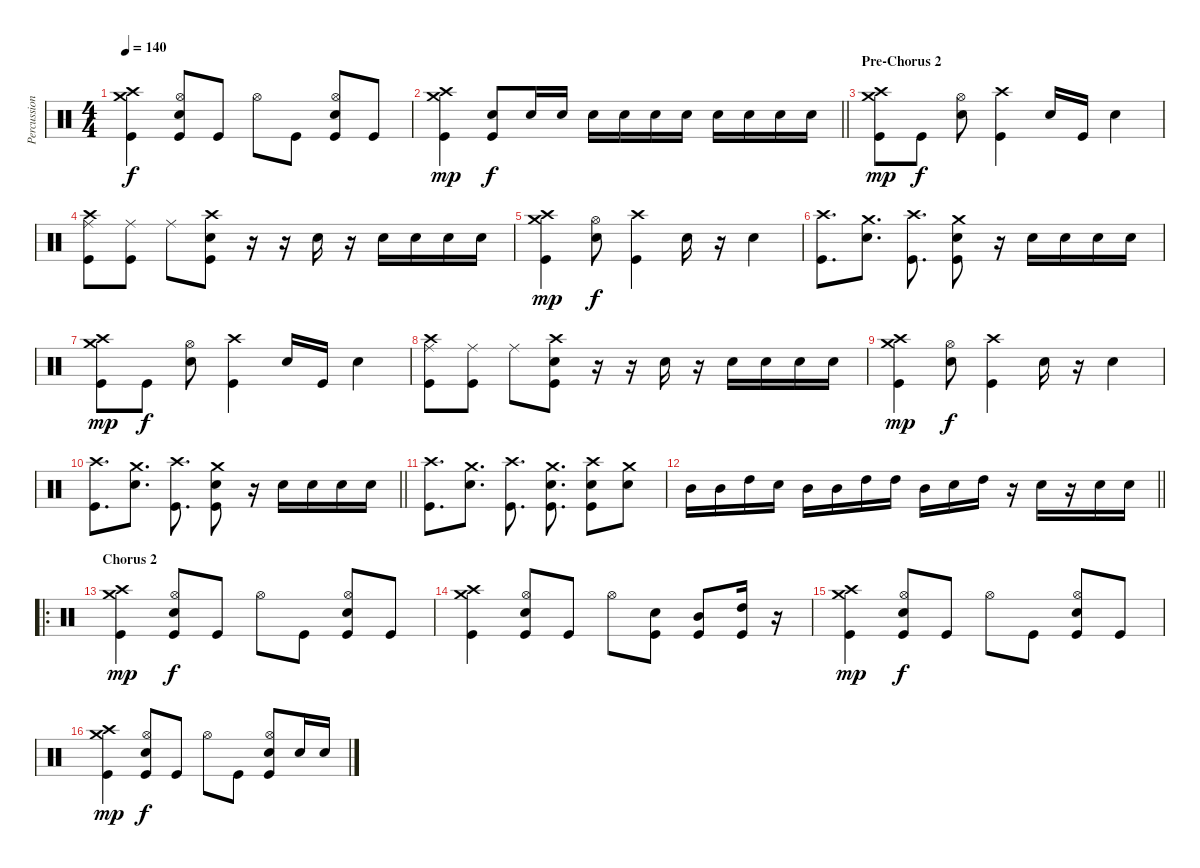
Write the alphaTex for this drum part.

\track ("Percussion" "Percussion") {instrument percussion}
\staff {score}
\articulation defaults
\ts (4 4)
\tempo 140
\clef neutral
\ks c
("Crash high (hit)" "Crash medium (hit)" "Kick (hit)").4{dy f} ("Hi-Hat (open)" "Electric Snare (hit)" "Kick (hit)").8 "Kick (hit)".8 "Hi-Hat (open)".8 "Kick (hit)".8 ("Hi-Hat (open)" "Electric Snare (hit)" "Kick (hit)").8 "Kick (hit)".8 |
\barLineRight lightlight
("Crash high (hit)" "Crash medium (hit)" "Kick (hit)").4{dy mp} ("Electric Snare (hit)" "Kick (hit)").8{dy f} "Electric Snare (hit)".16 "Electric Snare (hit)".16 "Electric Snare (hit)".16 "Electric Snare (hit)".16 "Electric Snare (hit)".16 "Electric Snare (hit)".16 "Electric Snare (hit)".16 "Electric Snare (hit)".16 "Electric Snare (hit)".16 "Electric Snare (hit)".16 |
\section ("" "Pre-Chorus 2")
("Crash high (hit)" "Crash medium (hit)" "Kick (hit)").8{dy mp} "Kick (hit)".8{dy f} ("Hi-Hat (open)" "Electric Snare (hit)").8 ("Crash high (hit)" "Kick (hit)").4 "Electric Snare (hit)".16 "Kick (hit)".16 "Electric Snare (hit)".4 |
("Crash high (hit)" "Ride (middle)" "Kick (hit)").8 ("Ride (middle)" "Kick (hit)").8 "Ride (middle)".8 ("Crash high (hit)" "Electric Snare (hit)" "Kick (hit)").8 r.16 r.16 "Electric Snare (hit)".16 r.16 "Electric Snare (hit)".16 "Electric Snare (hit)".16 "Electric Snare (hit)".16 "Electric Snare (hit)".16 |
("Crash high (hit)" "Crash medium (hit)" "Kick (hit)").4{dy mp} ("Hi-Hat (open)" "Electric Snare (hit)").8{dy f} ("Crash high (hit)" "Kick (hit)").4 "Electric Snare (hit)".16 r.16 "Electric Snare (hit)".4 |
("Crash high (hit)" "Kick (hit)").8{d} ("Crash medium (hit)" "Electric Snare (hit)").8{d} ("Crash high (hit)" "Kick (hit)").8{d} ("Crash medium (hit)" "Electric Snare (hit)" "Kick (hit)").8 r.16 "Electric Snare (hit)".16 "Electric Snare (hit)".16 "Electric Snare (hit)".16 "Electric Snare (hit)".16 |
("Crash high (hit)" "Crash medium (hit)" "Kick (hit)").8{dy mp} "Kick (hit)".8{dy f} ("Hi-Hat (open)" "Electric Snare (hit)").8 ("Crash high (hit)" "Kick (hit)").4 "Electric Snare (hit)".16 "Kick (hit)".16 "Electric Snare (hit)".4 |
("Crash high (hit)" "Ride (middle)" "Kick (hit)").8 ("Ride (middle)" "Kick (hit)").8 "Ride (middle)".8 ("Crash high (hit)" "Electric Snare (hit)" "Kick (hit)").8 r.16 r.16 "Electric Snare (hit)".16 r.16 "Electric Snare (hit)".16 "Electric Snare (hit)".16 "Electric Snare (hit)".16 "Electric Snare (hit)".16 |
("Crash high (hit)" "Crash medium (hit)" "Kick (hit)").4{dy mp} ("Hi-Hat (open)" "Electric Snare (hit)").8{dy f} ("Crash high (hit)" "Kick (hit)").4 "Electric Snare (hit)".16 r.16 "Electric Snare (hit)".4 |
\barLineRight lightlight
("Crash high (hit)" "Kick (hit)").8{d} ("Crash medium (hit)" "Electric Snare (hit)").8{d} ("Crash high (hit)" "Kick (hit)").8{d} ("Crash medium (hit)" "Electric Snare (hit)" "Kick (hit)").8 r.16 "Electric Snare (hit)".16 "Electric Snare (hit)".16 "Electric Snare (hit)".16 "Electric Snare (hit)".16 |
("Crash high (hit)" "Kick (hit)").8{d} ("Crash medium (hit)" "Electric Snare (hit)").8{d} ("Crash high (hit)" "Kick (hit)").8{d} ("Crash medium (hit)" "Electric Snare (hit)" "Kick (hit)").8{d} ("Crash high (hit)" "Electric Snare (hit)" "Kick (hit)").8 ("Crash medium (hit)" "Electric Snare (hit)").8 |
\barLineRight lightlight "Mid Tom (hit)".16 "Mid Tom (hit)".16 "High Tom (hit)".16 "Electric Snare (hit)".16 "Mid Tom (hit)".16 "Mid Tom (hit)".16 "High Tom (hit)".16 "High Tom (hit)".16 "Mid Tom (hit)".16 "Electric Snare (hit)".16 "High Tom (hit)".16
r.16 "Electric Snare (hit)".16 r.16 "Electric Snare (hit)".16 "Electric Snare (hit)".16 |
\ro
\section ("" "Chorus 2")
("Crash high (hit)" "Crash medium (hit)" "Kick (hit)").4{dy mp} ("Hi-Hat (open)" "Electric Snare (hit)" "Kick (hit)").8{dy f} "Kick (hit)".8 "Hi-Hat (open)".8 "Kick (hit)".8 ("Hi-Hat (open)" "Electric Snare (hit)" "Kick (hit)").8 "Kick (hit)".8 |
("Crash high (hit)" "Crash medium (hit)" "Kick (hit)").4 ("Hi-Hat (open)" "Electric Snare (hit)" "Kick (hit)").8 "Kick (hit)".8 "Hi-Hat (open)".8 ("Electric Snare (hit)" "Kick (hit)").8 ("Mid Tom (hit)" "Kick (hit)").8 ("High Tom (hit)" "Kick (hit)").16 r.16 |
("Crash high (hit)" "Crash medium (hit)" "Kick (hit)").4{dy mp} ("Hi-Hat (open)" "Electric Snare (hit)" "Kick (hit)").8{dy f} "Kick (hit)".8 "Hi-Hat (open)".8 "Kick (hit)".8 ("Hi-Hat (open)" "Electric Snare (hit)" "Kick (hit)").8 "Kick (hit)".8 |
("Crash high (hit)" "Crash medium (hit)" "Kick (hit)").4{dy mp} ("Hi-Hat (open)" "Electric Snare (hit)" "Kick (hit)").8{dy f} "Kick (hit)".8 "Hi-Hat (open)".8 "Kick (hit)".8 ("Hi-Hat (open)" "Electric Snare (hit)" "Kick (hit)").8 "Electric Snare (hit)".16 "Electric Snare (hit)".16
